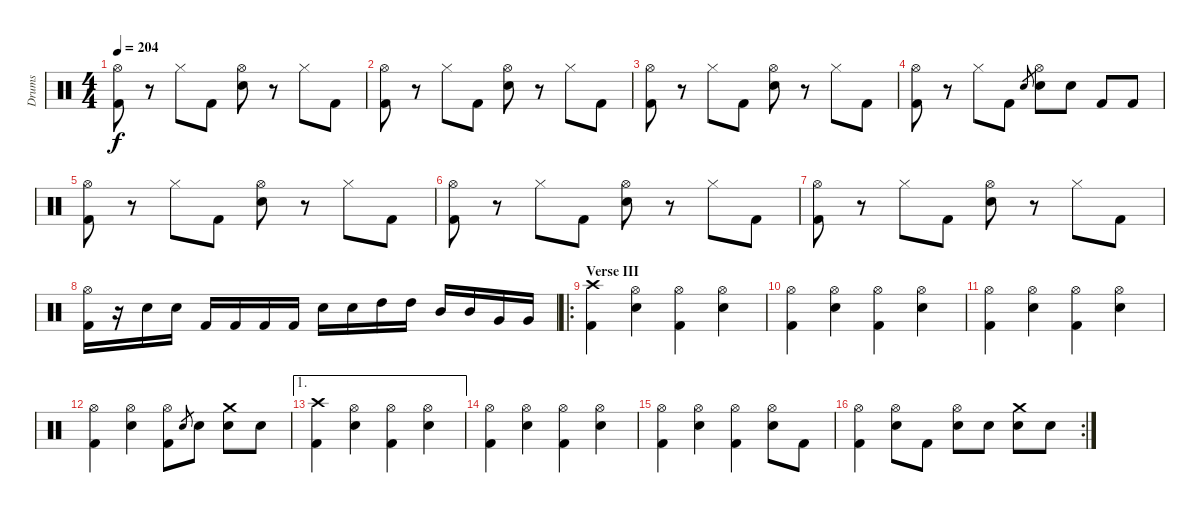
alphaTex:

\track ("Drums" "Drums") {instrument percussion}
\staff {score}
\articulation defaults
\ts (4 4)
\section ("" "")
\tempo 204
\clef neutral
\ks c
("Hi-Hat (open)" "Kick (hit) 2").8{dy f} r.8 "Hi-Hat (closed)".8 "Kick (hit) 2".8 ("Hi-Hat (open)" "Electric Snare (hit)").8 r.8 "Hi-Hat (closed)".8 "Kick (hit) 2".8 |
("Hi-Hat (open)" "Kick (hit) 2").8 r.8 "Hi-Hat (closed)".8 "Kick (hit) 2".8 ("Hi-Hat (open)" "Electric Snare (hit)").8 r.8 "Hi-Hat (closed)".8 "Kick (hit) 2".8 |
("Hi-Hat (open)" "Kick (hit) 2").8 r.8 "Hi-Hat (closed)".8 "Kick (hit) 2".8 ("Hi-Hat (open)" "Electric Snare (hit)").8 r.8 "Hi-Hat (closed)".8 "Kick (hit) 2".8 |
("Hi-Hat (open)" "Kick (hit) 2").8 r.8 "Hi-Hat (closed)".8 "Kick (hit) 2".8 "Electric Snare (hit)".8{gr} ("Hi-Hat (open)" "Electric Snare (hit)").8 "Electric Snare (hit)".8 "Kick (hit) 2".8 "Kick (hit) 2".8 |
("Hi-Hat (open)" "Kick (hit) 2").8 r.8 "Hi-Hat (closed)".8 "Kick (hit) 2".8 ("Hi-Hat (open)" "Electric Snare (hit)").8 r.8 "Hi-Hat (closed)".8 "Kick (hit) 2".8 |
("Hi-Hat (open)" "Kick (hit) 2").8 r.8 "Hi-Hat (closed)".8 "Kick (hit) 2".8 ("Hi-Hat (open)" "Electric Snare (hit)").8 r.8 "Hi-Hat (closed)".8 "Kick (hit) 2".8 |
("Hi-Hat (open)" "Kick (hit) 2").8 r.8 "Hi-Hat (closed)".8 "Kick (hit) 2".8 ("Hi-Hat (open)" "Electric Snare (hit)").8 r.8 "Hi-Hat (closed)".8 "Kick (hit) 2".8 |
("Hi-Hat (open)" "Kick (hit) 2").16 r.16 "Electric Snare (hit)".16 "Electric Snare (hit)".16 "Kick (hit) 2".16 "Kick (hit) 2".16 "Kick (hit) 2".16 "Kick (hit) 2".16 "Electric Snare (hit)".16 "Electric Snare (hit)".16 "High Tom (hit)".16 "High Tom (hit)".16 "Mid Tom (hit)".16 "Mid Tom (hit)".16 "Very Low Tom (hit)".16 "Very Low Tom (hit)".16 |
\ro
\section ("" "Verse III")
("Crash high (hit)" "Kick (hit) 2").4 ("Hi-Hat (open)" "Electric Snare (hit)").4 ("Hi-Hat (open)" "Kick (hit) 2").4 ("Hi-Hat (open)" "Electric Snare (hit)").4 |
("Hi-Hat (open)" "Kick (hit) 2").4 ("Hi-Hat (open)" "Electric Snare (hit)").4 ("Hi-Hat (open)" "Kick (hit) 2").4 ("Hi-Hat (open)" "Electric Snare (hit)").4 |
("Hi-Hat (open)" "Kick (hit) 2").4 ("Hi-Hat (open)" "Electric Snare (hit)").4 ("Hi-Hat (open)" "Kick (hit) 2").4 ("Hi-Hat (open)" "Electric Snare (hit)").4 |
("Hi-Hat (open)" "Kick (hit) 2").4 ("Hi-Hat (open)" "Electric Snare (hit)").4 ("Hi-Hat (open)" "Kick (hit) 2").8 "Electric Snare (hit)".8{gr} "Electric Snare (hit)".8 ("Crash medium (hit)" "Electric Snare (hit)").8 "Electric Snare (hit)".8 |
\ae 1
("Crash high (hit)" "Kick (hit) 2").4 ("Hi-Hat (open)" "Electric Snare (hit)").4 ("Hi-Hat (open)" "Kick (hit) 2").4 ("Hi-Hat (open)" "Electric Snare (hit)").4 |
("Hi-Hat (open)" "Kick (hit) 2").4 ("Hi-Hat (open)" "Electric Snare (hit)").4 ("Hi-Hat (open)" "Kick (hit) 2").4 ("Hi-Hat (open)" "Electric Snare (hit)").4 |
("Hi-Hat (open)" "Kick (hit) 2").4 ("Hi-Hat (open)" "Electric Snare (hit)").4 ("Hi-Hat (open)" "Kick (hit) 2").4 ("Hi-Hat (open)" "Electric Snare (hit)").8 "Kick (hit) 2".8 |
\rc 2
("Hi-Hat (open)" "Kick (hit) 2").4 ("Hi-Hat (open)" "Electric Snare (hit)").8 "Kick (hit) 2".8 ("Hi-Hat (open)" "Electric Snare (hit)").8 "Electric Snare (hit)".8 ("Crash medium (hit)" "Electric Snare (hit)").8 "Electric Snare (hit)".8
